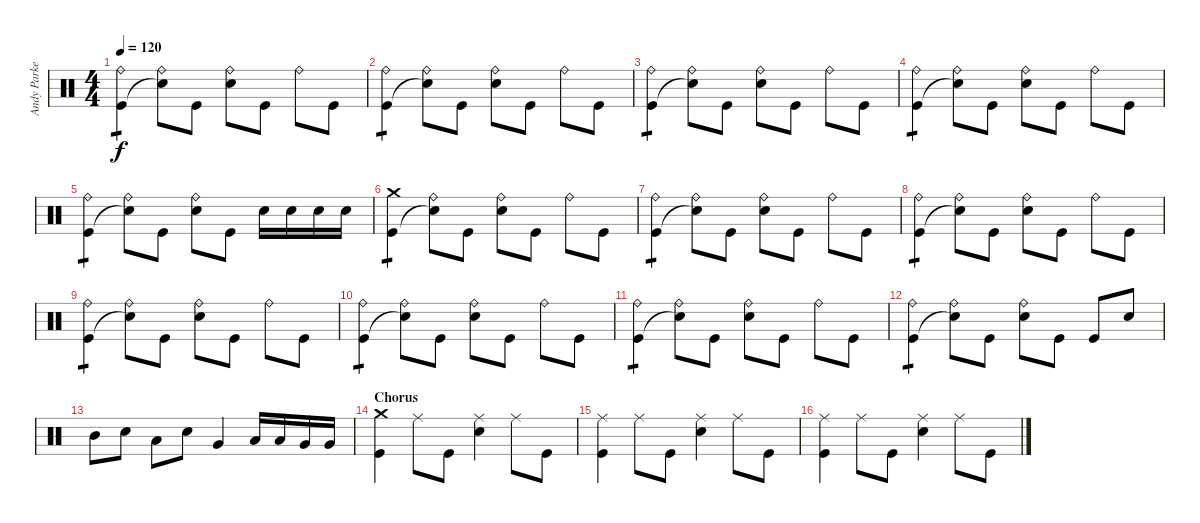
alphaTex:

\track ("Andy Parker" "Andy Parke") {instrument percussion}
\staff {score}
\articulation defaults
\ts (4 4)
\tempo 120
\clef neutral
\ks c
("Ride (bell)" "Kick (hit)").4{tp 1 dy f} ("Ride (bell)" "Snare (hit)"{t}).8 "Kick (hit)".8 ("Ride (bell)" "Snare (hit) 2").8 "Kick (hit)".8 "Ride (bell)".8 "Kick (hit)".8 |
("Ride (bell)" "Kick (hit)").4{tp 1} ("Ride (bell)" "Snare (hit)"{t}).8 "Kick (hit)".8 ("Ride (bell)" "Snare (hit) 2").8 "Kick (hit)".8 "Ride (bell)".8 "Kick (hit)".8 |
("Ride (bell)" "Kick (hit)").4{tp 1} ("Ride (bell)" "Snare (hit)"{t}).8 "Kick (hit)".8 ("Ride (bell)" "Snare (hit) 2").8 "Kick (hit)".8 "Ride (bell)".8 "Kick (hit)".8 |
("Ride (bell)" "Kick (hit)").4{tp 1} ("Ride (bell)" "Snare (hit)"{t}).8 "Kick (hit)".8 ("Ride (bell)" "Snare (hit) 2").8 "Kick (hit)".8 "Ride (bell)".8 "Kick (hit)".8 |
("Ride (bell)" "Kick (hit)").4{tp 1} ("Ride (bell)" "Snare (hit)"{t}).8 "Kick (hit)".8 ("Ride (bell)" "Snare (hit) 2").8 "Kick (hit)".8 "Snare (hit) 2".16 "Snare (hit) 2".16 "Snare (hit) 2".16 "Snare (hit) 2".16 |
("Crash medium (hit)" "Kick (hit)").4{tp 1} ("Ride (bell)" "Snare (hit)"{t}).8 "Kick (hit)".8 ("Ride (bell)" "Snare (hit) 2").8 "Kick (hit)".8 "Ride (bell)".8 "Kick (hit)".8 |
("Ride (bell)" "Kick (hit)").4{tp 1} ("Ride (bell)" "Snare (hit)"{t}).8 "Kick (hit)".8 ("Ride (bell)" "Snare (hit) 2").8 "Kick (hit)".8 "Ride (bell)".8 "Kick (hit)".8 |
("Ride (bell)" "Kick (hit)").4{tp 1} ("Ride (bell)" "Snare (hit)"{t}).8 "Kick (hit)".8 ("Ride (bell)" "Snare (hit) 2").8 "Kick (hit)".8 "Ride (bell)".8 "Kick (hit)".8 |
("Ride (bell)" "Kick (hit)").4{tp 1} ("Ride (bell)" "Snare (hit)"{t}).8 "Kick (hit)".8 ("Ride (bell)" "Snare (hit) 2").8 "Kick (hit)".8 "Ride (bell)".8 "Kick (hit)".8 |
("Ride (bell)" "Kick (hit)").4{tp 1} ("Ride (bell)" "Snare (hit)"{t}).8 "Kick (hit)".8 ("Ride (bell)" "Snare (hit) 2").8 "Kick (hit)".8 "Ride (bell)".8 "Kick (hit)".8 |
("Ride (bell)" "Kick (hit)").4{tp 1} ("Ride (bell)" "Snare (hit)"{t}).8 "Kick (hit)".8 ("Ride (bell)" "Snare (hit) 2").8 "Kick (hit)".8 "Ride (bell)".8 "Kick (hit)".8 |
("Ride (bell)" "Kick (hit)").4{tp 1} ("Ride (bell)" "Snare (hit)"{t}).8 "Kick (hit)".8 ("Ride (bell)" "Snare (hit) 2").8 "Kick (hit)".8 "Kick (hit)".8 "Snare (hit) 2".8 |
"Mid Tom (hit)".8 "Snare (hit) 2".8 "Low Tom (hit)".8 "Snare (hit) 2".8 "Very Low Tom (hit)".4 "Low Tom (hit)".16 "Low Tom (hit)".16 "Very Low Tom (hit)".16 "Very Low Tom (hit)".16 |
\section ("" "Chorus")
("Crash medium (hit)" "Kick (hit)").4 "Ride (middle)".8 "Kick (hit)".8 ("Ride (middle)" "Snare (hit) 2").4 "Ride (middle)".8 "Kick (hit)".8 |
("Ride (middle)" "Kick (hit)").4 "Ride (middle)".8 "Kick (hit)".8 ("Ride (middle)" "Snare (hit) 2").4 "Ride (middle)".8 "Kick (hit)".8 |
("Ride (middle)" "Kick (hit)").4 "Ride (middle)".8 "Kick (hit)".8 ("Ride (middle)" "Snare (hit) 2").4 "Ride (middle)".8 "Kick (hit)".8
